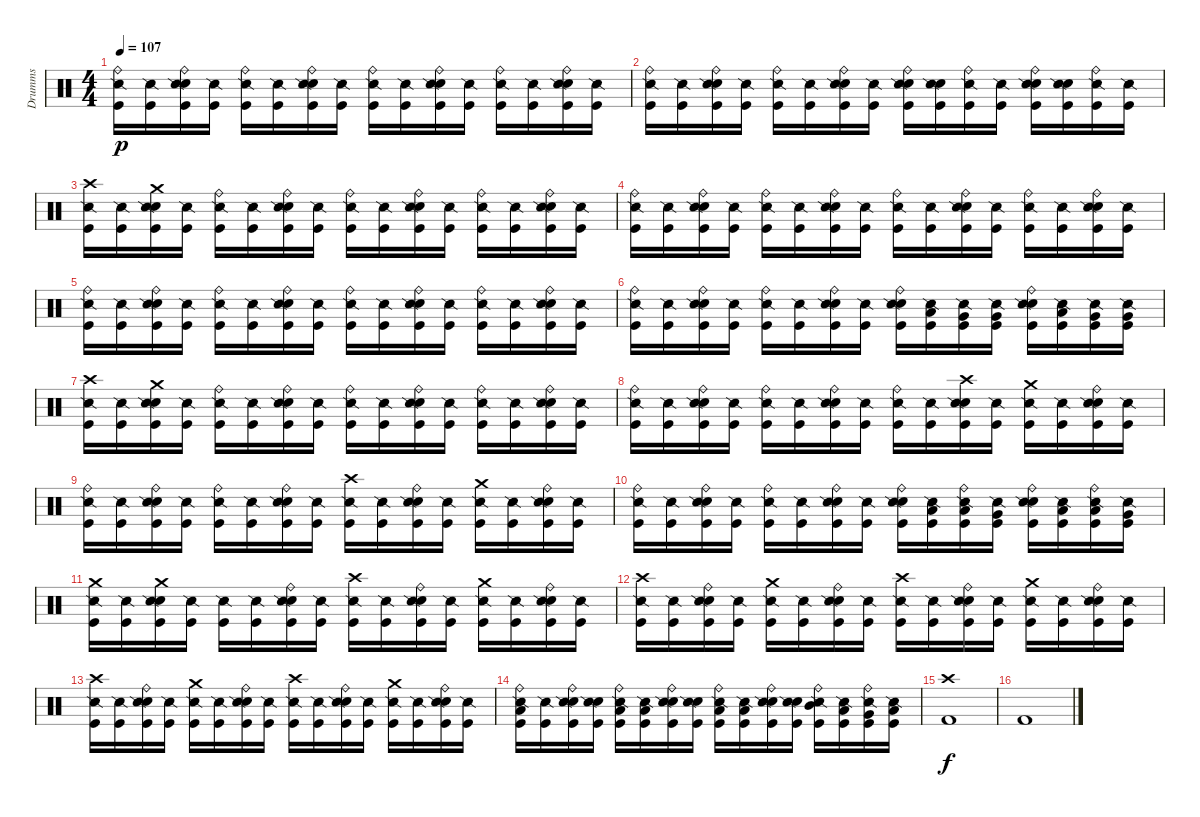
\track ("Drumms" "Drumms") {instrument percussion}
\staff {score}
\articulation defaults
\ts (4 4)
\tempo 107
\clef neutral
\ks c
("Ride (bell)" "Snare (side stick) 2" "Kick (hit)").16{dy p} ("Snare (side stick) 2" "Kick (hit)").16 ("Ride (bell)" "Electric Snare (hit)" "Snare (side stick) 2" "Kick (hit)").16 ("Snare (side stick) 2" "Kick (hit)").16 ("Ride (bell)" "Snare (side stick) 2" "Kick (hit)").16 ("Snare (side stick) 2" "Kick (hit)").16 ("Ride (bell)" "Electric Snare (hit)" "Snare (side stick) 2" "Kick (hit)").16 ("Snare (side stick) 2" "Kick (hit)").16 ("Ride (bell)" "Snare (side stick) 2" "Kick (hit)").16 ("Snare (side stick) 2" "Kick (hit)").16 ("Ride (bell)" "Electric Snare (hit)" "Snare (side stick) 2" "Kick (hit)").16 ("Snare (side stick) 2" "Kick (hit)").16 ("Ride (bell)" "Snare (side stick) 2" "Kick (hit)").16 ("Snare (side stick) 2" "Kick (hit)").16 ("Ride (bell)" "Electric Snare (hit)" "Snare (side stick) 2" "Kick (hit)").16 ("Snare (side stick) 2" "Kick (hit)").16 |
("Ride (bell)" "Snare (side stick) 2" "Kick (hit)").16 ("Snare (side stick) 2" "Kick (hit)").16 ("Ride (bell)" "Electric Snare (hit)" "Snare (side stick) 2" "Kick (hit)").16 ("Snare (side stick) 2" "Kick (hit)").16 ("Ride (bell)" "Snare (side stick) 2" "Kick (hit)").16 ("Snare (side stick) 2" "Kick (hit)").16 ("Ride (bell)" "Electric Snare (hit)" "Snare (side stick) 2" "Kick (hit)").16 ("Snare (side stick) 2" "Kick (hit)").16 ("Ride (bell)" "Electric Snare (hit)" "Snare (side stick) 2" "Kick (hit)").16 ("Electric Snare (hit)" "Snare (side stick) 2" "Kick (hit)").16 ("Ride (bell)" "Snare (side stick) 2" "Kick (hit)").16 ("Snare (side stick) 2" "Kick (hit)").16 ("Ride (bell)" "Electric Snare (hit)" "Snare (side stick) 2" "Kick (hit)").16 ("Electric Snare (hit)" "Snare (side stick) 2" "Kick (hit)").16 ("Ride (bell)" "Snare (side stick) 2" "Kick (hit)").16 ("Snare (side stick) 2" "Kick (hit)").16 |
("Crash high (hit)" "Snare (side stick) 2" "Kick (hit)").16 ("Snare (side stick) 2" "Kick (hit)").16 ("Crash medium (hit)" "Electric Snare (hit)" "Snare (side stick) 2" "Kick (hit)").16 ("Snare (side stick) 2" "Kick (hit)").16 ("Ride (bell)" "Snare (side stick) 2" "Kick (hit)").16 ("Snare (side stick) 2" "Kick (hit)").16 ("Ride (bell)" "Electric Snare (hit)" "Snare (side stick) 2" "Kick (hit)").16 ("Snare (side stick) 2" "Kick (hit)").16 ("Ride (bell)" "Snare (side stick) 2" "Kick (hit)").16 ("Snare (side stick) 2" "Kick (hit)").16 ("Ride (bell)" "Electric Snare (hit)" "Snare (side stick) 2" "Kick (hit)").16 ("Snare (side stick) 2" "Kick (hit)").16 ("Ride (bell)" "Snare (side stick) 2" "Kick (hit)").16 ("Snare (side stick) 2" "Kick (hit)").16 ("Ride (bell)" "Electric Snare (hit)" "Snare (side stick) 2" "Kick (hit)").16 ("Snare (side stick) 2" "Kick (hit)").16 |
("Ride (bell)" "Snare (side stick) 2" "Kick (hit)").16 ("Snare (side stick) 2" "Kick (hit)").16 ("Ride (bell)" "Electric Snare (hit)" "Snare (side stick) 2" "Kick (hit)").16 ("Snare (side stick) 2" "Kick (hit)").16 ("Ride (bell)" "Snare (side stick) 2" "Kick (hit)").16 ("Snare (side stick) 2" "Kick (hit)").16 ("Ride (bell)" "Electric Snare (hit)" "Snare (side stick) 2" "Kick (hit)").16 ("Snare (side stick) 2" "Kick (hit)").16 ("Ride (bell)" "Snare (side stick) 2" "Kick (hit)").16 ("Snare (side stick) 2" "Kick (hit)").16 ("Ride (bell)" "Electric Snare (hit)" "Snare (side stick) 2" "Kick (hit)").16 ("Snare (side stick) 2" "Kick (hit)").16 ("Ride (bell)" "Snare (side stick) 2" "Kick (hit)").16 ("Snare (side stick) 2" "Kick (hit)").16 ("Ride (bell)" "Electric Snare (hit)" "Snare (side stick) 2" "Kick (hit)").16 ("Snare (side stick) 2" "Kick (hit)").16 |
("Ride (bell)" "Snare (side stick) 2" "Kick (hit)").16 ("Snare (side stick) 2" "Kick (hit)").16 ("Ride (bell)" "Electric Snare (hit)" "Snare (side stick) 2" "Kick (hit)").16 ("Snare (side stick) 2" "Kick (hit)").16 ("Ride (bell)" "Snare (side stick) 2" "Kick (hit)").16 ("Snare (side stick) 2" "Kick (hit)").16 ("Ride (bell)" "Electric Snare (hit)" "Snare (side stick) 2" "Kick (hit)").16 ("Snare (side stick) 2" "Kick (hit)").16 ("Ride (bell)" "Snare (side stick) 2" "Kick (hit)").16 ("Snare (side stick) 2" "Kick (hit)").16 ("Ride (bell)" "Electric Snare (hit)" "Snare (side stick) 2" "Kick (hit)").16 ("Snare (side stick) 2" "Kick (hit)").16 ("Ride (bell)" "Snare (side stick) 2" "Kick (hit)").16 ("Snare (side stick) 2" "Kick (hit)").16 ("Ride (bell)" "Electric Snare (hit)" "Snare (side stick) 2" "Kick (hit)").16 ("Snare (side stick) 2" "Kick (hit)").16 |
("Ride (bell)" "Snare (side stick) 2" "Kick (hit)").16 ("Snare (side stick) 2" "Kick (hit)").16 ("Ride (bell)" "Electric Snare (hit)" "Snare (side stick) 2" "Kick (hit)").16 ("Snare (side stick) 2" "Kick (hit)").16 ("Ride (bell)" "Snare (side stick) 2" "Kick (hit)").16 ("Snare (side stick) 2" "Kick (hit)").16 ("Ride (bell)" "Electric Snare (hit)" "Snare (side stick) 2" "Kick (hit)").16 ("Snare (side stick) 2" "Kick (hit)").16 ("Ride (bell)" "Electric Snare (hit)" "Snare (side stick) 2" "Kick (hit)").16 ("Low Tom (hit)" "Snare (side stick) 2" "Kick (hit)").16 ("Very Low Tom (hit)" "Snare (side stick) 2" "Kick (hit)").16 ("Very Low Tom (hit)" "Snare (side stick) 2" "Kick (hit)").16 ("Ride (bell)" "Electric Snare (hit)" "Snare (side stick) 2" "Kick (hit)").16 ("Low Tom (hit)" "Snare (side stick) 2" "Kick (hit)").16 ("Very Low Tom (hit)" "Snare (side stick) 2" "Kick (hit)").16 ("Very Low Tom (hit)" "Snare (side stick) 2" "Kick (hit)").16 |
("Crash high (hit)" "Snare (side stick) 2" "Kick (hit)").16 ("Snare (side stick) 2" "Kick (hit)").16 ("Crash medium (hit)" "Electric Snare (hit)" "Snare (side stick) 2" "Kick (hit)").16 ("Snare (side stick) 2" "Kick (hit)").16 ("Ride (bell)" "Snare (side stick) 2" "Kick (hit)").16 ("Snare (side stick) 2" "Kick (hit)").16 ("Ride (bell)" "Electric Snare (hit)" "Snare (side stick) 2" "Kick (hit)").16 ("Snare (side stick) 2" "Kick (hit)").16 ("Ride (bell)" "Snare (side stick) 2" "Kick (hit)").16 ("Snare (side stick) 2" "Kick (hit)").16 ("Ride (bell)" "Electric Snare (hit)" "Snare (side stick) 2" "Kick (hit)").16 ("Snare (side stick) 2" "Kick (hit)").16 ("Ride (bell)" "Snare (side stick) 2" "Kick (hit)").16 ("Snare (side stick) 2" "Kick (hit)").16 ("Ride (bell)" "Electric Snare (hit)" "Snare (side stick) 2" "Kick (hit)").16 ("Snare (side stick) 2" "Kick (hit)").16 |
("Ride (bell)" "Snare (side stick) 2" "Kick (hit)").16 ("Snare (side stick) 2" "Kick (hit)").16 ("Ride (bell)" "Electric Snare (hit)" "Snare (side stick) 2" "Kick (hit)").16 ("Snare (side stick) 2" "Kick (hit)").16 ("Ride (bell)" "Snare (side stick) 2" "Kick (hit)").16 ("Snare (side stick) 2" "Kick (hit)").16 ("Ride (bell)" "Electric Snare (hit)" "Snare (side stick) 2" "Kick (hit)").16 ("Snare (side stick) 2" "Kick (hit)").16 ("Ride (bell)" "Snare (side stick) 2" "Kick (hit)").16 ("Snare (side stick) 2" "Kick (hit)").16 ("Crash high (hit)" "Electric Snare (hit)" "Snare (side stick) 2" "Kick (hit)").16 ("Snare (side stick) 2" "Kick (hit)").16 ("Crash medium (hit)" "Snare (side stick) 2" "Kick (hit)").16 ("Snare (side stick) 2" "Kick (hit)").16 ("Ride (bell)" "Electric Snare (hit)" "Snare (side stick) 2" "Kick (hit)").16 ("Snare (side stick) 2" "Kick (hit)").16 |
("Ride (bell)" "Snare (side stick) 2" "Kick (hit)").16 ("Snare (side stick) 2" "Kick (hit)").16 ("Ride (bell)" "Electric Snare (hit)" "Snare (side stick) 2" "Kick (hit)").16 ("Snare (side stick) 2" "Kick (hit)").16 ("Ride (bell)" "Snare (side stick) 2" "Kick (hit)").16 ("Snare (side stick) 2" "Kick (hit)").16 ("Ride (bell)" "Electric Snare (hit)" "Snare (side stick) 2" "Kick (hit)").16 ("Snare (side stick) 2" "Kick (hit)").16 ("Crash high (hit)" "Snare (side stick) 2" "Kick (hit)").16 ("Snare (side stick) 2" "Kick (hit)").16 ("Ride (bell)" "Electric Snare (hit)" "Snare (side stick) 2" "Kick (hit)").16 ("Snare (side stick) 2" "Kick (hit)").16 ("Crash medium (hit)" "Snare (side stick) 2" "Kick (hit)").16 ("Snare (side stick) 2" "Kick (hit)").16 ("Ride (bell)" "Electric Snare (hit)" "Snare (side stick) 2" "Kick (hit)").16 ("Snare (side stick) 2" "Kick (hit)").16 |
("Ride (bell)" "Snare (side stick) 2" "Kick (hit)").16 ("Snare (side stick) 2" "Kick (hit)").16 ("Ride (bell)" "Electric Snare (hit)" "Snare (side stick) 2" "Kick (hit)").16 ("Snare (side stick) 2" "Kick (hit)").16 ("Ride (bell)" "Snare (side stick) 2" "Kick (hit)").16 ("Snare (side stick) 2" "Kick (hit)").16 ("Ride (bell)" "Electric Snare (hit)" "Snare (side stick) 2" "Kick (hit)").16 ("Snare (side stick) 2" "Kick (hit)").16 ("Ride (bell)" "Electric Snare (hit)" "Snare (side stick) 2" "Kick (hit)").16 ("Low Tom (hit)" "Snare (side stick) 2" "Kick (hit)").16 ("Ride (bell)" "Low Tom (hit)" "Snare (side stick) 2" "Kick (hit)").16 ("Very Low Tom (hit)" "Snare (side stick) 2" "Kick (hit)").16 ("Ride (bell)" "Electric Snare (hit)" "Snare (side stick) 2" "Kick (hit)").16 ("Low Tom (hit)" "Snare (side stick) 2" "Kick (hit)").16 ("Ride (bell)" "Low Tom (hit)" "Snare (side stick) 2" "Kick (hit)").16 ("Very Low Tom (hit)" "Snare (side stick) 2" "Kick (hit)").16 |
("Crash medium (hit)" "Snare (side stick) 2" "Kick (hit)").16 ("Snare (side stick) 2" "Kick (hit)").16 ("Crash medium (hit)" "Electric Snare (hit)" "Snare (side stick) 2" "Kick (hit)").16 ("Snare (side stick) 2" "Kick (hit)").16 ("Snare (side stick) 2" "Kick (hit)").16 ("Snare (side stick) 2" "Kick (hit)").16 ("Ride (bell)" "Electric Snare (hit)" "Snare (side stick) 2" "Kick (hit)").16 ("Snare (side stick) 2" "Kick (hit)").16 ("Crash high (hit)" "Snare (side stick) 2" "Kick (hit)").16 ("Snare (side stick) 2" "Kick (hit)").16 ("Ride (bell)" "Electric Snare (hit)" "Snare (side stick) 2" "Kick (hit)").16 ("Snare (side stick) 2" "Kick (hit)").16 ("Crash medium (hit)" "Snare (side stick) 2" "Kick (hit)").16 ("Snare (side stick) 2" "Kick (hit)").16 ("Ride (bell)" "Electric Snare (hit)" "Snare (side stick) 2" "Kick (hit)").16 ("Snare (side stick) 2" "Kick (hit)").16 |
("Crash high (hit)" "Snare (side stick) 2" "Kick (hit)").16 ("Snare (side stick) 2" "Kick (hit)").16 ("Ride (bell)" "Electric Snare (hit)" "Snare (side stick) 2" "Kick (hit)").16 ("Snare (side stick) 2" "Kick (hit)").16 ("Crash medium (hit)" "Snare (side stick) 2" "Kick (hit)").16 ("Snare (side stick) 2" "Kick (hit)").16 ("Ride (bell)" "Electric Snare (hit)" "Snare (side stick) 2" "Kick (hit)").16 ("Snare (side stick) 2" "Kick (hit)").16 ("Crash high (hit)" "Snare (side stick) 2" "Kick (hit)").16 ("Snare (side stick) 2" "Kick (hit)").16 ("Ride (bell)" "Electric Snare (hit)" "Snare (side stick) 2" "Kick (hit)").16 ("Snare (side stick) 2" "Kick (hit)").16 ("Crash medium (hit)" "Snare (side stick) 2" "Kick (hit)").16 ("Snare (side stick) 2" "Kick (hit)").16 ("Ride (bell)" "Electric Snare (hit)" "Snare (side stick) 2" "Kick (hit)").16 ("Snare (side stick) 2" "Kick (hit)").16 |
("Crash high (hit)" "Snare (side stick) 2" "Kick (hit)").16 ("Snare (side stick) 2" "Kick (hit)").16 ("Ride (bell)" "Electric Snare (hit)" "Snare (side stick) 2" "Kick (hit)").16 ("Snare (side stick) 2" "Kick (hit)").16 ("Crash medium (hit)" "Snare (side stick) 2" "Kick (hit)").16 ("Snare (side stick) 2" "Kick (hit)").16 ("Ride (bell)" "Electric Snare (hit)" "Snare (side stick) 2" "Kick (hit)").16 ("Snare (side stick) 2" "Kick (hit)").16 ("Crash high (hit)" "Snare (side stick) 2" "Kick (hit)").16 ("Snare (side stick) 2" "Kick (hit)").16 ("Ride (bell)" "Electric Snare (hit)" "Snare (side stick) 2" "Kick (hit)").16 ("Snare (side stick) 2" "Kick (hit)").16 ("Crash medium (hit)" "Snare (side stick) 2" "Kick (hit)").16 ("Snare (side stick) 2" "Kick (hit)").16 ("Ride (bell)" "Electric Snare (hit)" "Snare (side stick) 2" "Kick (hit)").16 ("Snare (side stick) 2" "Kick (hit)").16 |
("Ride (bell)" "Low Tom (hit)" "Snare (side stick) 2" "Kick (hit)").16 ("Snare (side stick) 2" "Kick (hit)").16 ("Ride (bell)" "Electric Snare (hit)" "Snare (side stick) 2" "Kick (hit)").16 ("Electric Snare (hit)" "Snare (side stick) 2" "Kick (hit)").16 ("Ride (bell)" "Low Tom (hit)" "Snare (side stick) 2" "Kick (hit)").16 ("Low Tom (hit)" "Snare (side stick) 2" "Kick (hit)").16 ("Ride (bell)" "Electric Snare (hit)" "Snare (side stick) 2" "Kick (hit)").16 ("Electric Snare (hit)" "Snare (side stick) 2" "Kick (hit)").16 ("Ride (bell)" "Low Tom (hit)" "Snare (side stick) 2" "Kick (hit)").16 ("Low Tom (hit)" "Snare (side stick) 2" "Kick (hit)").16 ("Ride (bell)" "Electric Snare (hit)" "Snare (side stick) 2" "Kick (hit)").16 ("Electric Snare (hit)" "Snare (side stick) 2" "Kick (hit)").16 ("Ride (bell)" "Mid Tom (hit)" "Snare (side stick) 2" "Kick (hit)").16 ("Low Tom (hit)" "Snare (side stick) 2" "Kick (hit)").16 ("Ride (bell)" "Very Low Tom (hit)" "Snare (side stick) 2" "Kick (hit)").16 ("Low Floor Tom (hit)" "Snare (side stick) 2" "Kick (hit)").16 |
\section ("" "")
("Crash high (hit)" "Kick (hit) 2").1{dy f} |
"Kick (hit) 2".1
